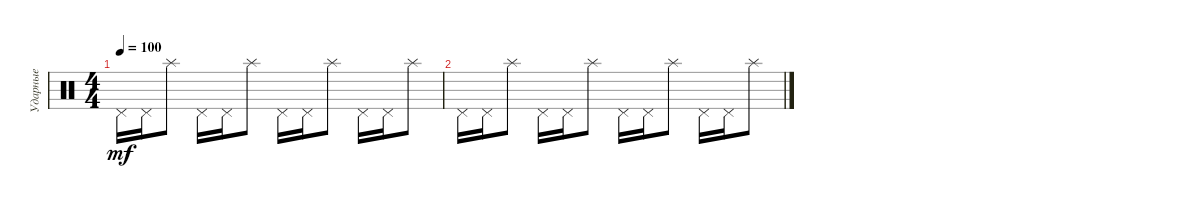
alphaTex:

\track ("Ударные" "Ударные") {instrument percussion}
\staff {score}
\articulation defaults
\ts (4 4)
\tempo 100
\clef neutral
\ks c "Pedal Hi-Hat (hit)".16{dy mf} "Pedal Hi-Hat (hit)".16 "Splash (hit)".8 "Pedal Hi-Hat (hit)".16 "Pedal Hi-Hat (hit)".16 "Splash (hit)".8 "Pedal Hi-Hat (hit)".16 "Pedal Hi-Hat (hit)".16 "Splash (hit)".8 "Pedal Hi-Hat (hit)".16 "Pedal Hi-Hat (hit)".16 "Splash (hit)".8
|
"Pedal Hi-Hat (hit)".16 "Pedal Hi-Hat (hit)".16 "Splash (hit)".8 "Pedal Hi-Hat (hit)".16 "Pedal Hi-Hat (hit)".16 "Splash (hit)".8 "Pedal Hi-Hat (hit)".16 "Pedal Hi-Hat (hit)".16 "Splash (hit)".8 "Pedal Hi-Hat (hit)".16 "Pedal Hi-Hat (hit)".16 "Splash (hit)".8
